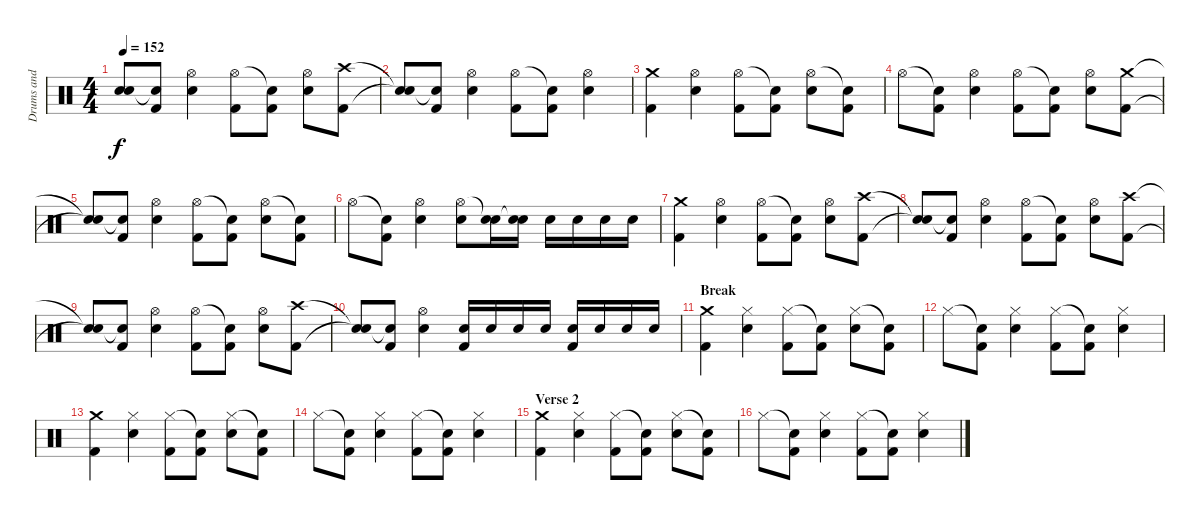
\track ("Drums and Percussion" "Drums and ") {instrument percussion}
\staff {score}
\articulation defaults
\ts (4 4)
\tempo 152
\clef neutral
\ks c
("Snare (hit)"{t} "Snare (hit)"{t}).8{dy f} ("Snare (hit)"{t} "Kick (hit) 2").8 ("Hi-Hat (open)" "Snare (hit) 2").4 ("Hi-Hat (open)" "Kick (hit) 2").8 ("Snare (hit)"{t} "Kick (hit) 2").8 ("Hi-Hat (open)" "Snare (hit) 2").8 ("Crash high (hit)" "Kick (hit) 2").8 |
("Snare (hit)"{t} "Snare (hit)"{t}).8 ("Snare (hit)"{t} "Kick (hit) 2").8 ("Hi-Hat (open)" "Snare (hit) 2").4 ("Hi-Hat (open)" "Kick (hit) 2").8 ("Snare (hit)"{t} "Kick (hit) 2").8 ("Hi-Hat (open)" "Snare (hit) 2").4 |
("Crash medium (hit)" "Kick (hit) 2").4 ("Hi-Hat (open)" "Snare (hit) 2").4 ("Hi-Hat (open)" "Kick (hit) 2").8 ("Snare (hit)"{t} "Kick (hit) 2").8 ("Hi-Hat (open)" "Snare (hit) 2").8 ("Snare (hit)"{t} "Kick (hit) 2").8 |
"Hi-Hat (open)".8 ("Snare (hit)"{t} "Kick (hit) 2").8 ("Hi-Hat (open)" "Snare (hit) 2").4 ("Hi-Hat (open)" "Kick (hit) 2").8 ("Snare (hit)"{t} "Kick (hit) 2").8 ("Hi-Hat (open)" "Snare (hit) 2").8 ("Crash medium (hit)" "Kick (hit) 2").8 |
("Snare (hit)"{t} "Snare (hit)"{t}).8 ("Snare (hit)"{t} "Kick (hit) 2").8 ("Hi-Hat (open)" "Snare (hit) 2").4 ("Hi-Hat (open)" "Kick (hit) 2").8 ("Snare (hit)"{t} "Kick (hit) 2").8 ("Hi-Hat (open)" "Snare (hit) 2").8 ("Snare (hit)"{t} "Kick (hit) 2").8 |
"Hi-Hat (open)".8 ("Snare (hit)"{t} "Kick (hit) 2").8 ("Hi-Hat (open)" "Snare (hit) 2").4 ("Hi-Hat (open)" "Snare (hit) 2").8 ("Snare (hit)"{t} "Snare (hit) 2").16 ("Snare (hit)"{t} "Snare (hit) 2").16 "Snare (hit) 2".16 "Snare (hit) 2".16 "Snare (hit) 2".16 "Snare (hit) 2".16 |
("Crash medium (hit)" "Kick (hit) 2").4 ("Hi-Hat (open)" "Snare (hit) 2").4 ("Hi-Hat (open)" "Kick (hit) 2").8 ("Snare (hit)"{t} "Kick (hit) 2").8 ("Hi-Hat (open)" "Snare (hit) 2").8 ("Crash high (hit)" "Kick (hit) 2").8 |
("Snare (hit)"{t} "Snare (hit)"{t}).8 ("Snare (hit)"{t} "Kick (hit) 2").8 ("Hi-Hat (open)" "Snare (hit) 2").4 ("Hi-Hat (open)" "Kick (hit) 2").8 ("Snare (hit)"{t} "Kick (hit) 2").8 ("Hi-Hat (open)" "Snare (hit) 2").8 ("Crash high (hit)" "Kick (hit) 2").8 |
("Snare (hit)"{t} "Snare (hit)"{t}).8 ("Snare (hit)"{t} "Kick (hit) 2").8 ("Hi-Hat (open)" "Snare (hit) 2").4 ("Hi-Hat (open)" "Kick (hit) 2").8 ("Snare (hit)"{t} "Kick (hit) 2").8 ("Hi-Hat (open)" "Snare (hit) 2").8 ("Crash high (hit)" "Kick (hit) 2").8 |
("Snare (hit)"{t} "Snare (hit)"{t}).8 ("Snare (hit)"{t} "Kick (hit) 2").8 ("Hi-Hat (open)" "Snare (hit) 2").4 ("Snare (hit) 2" "Kick (hit) 2").16 "Snare (hit) 2".16 "Snare (hit) 2".16 "Snare (hit) 2".16 ("Snare (hit) 2" "Kick (hit) 2").16 "Snare (hit) 2".16 "Snare (hit) 2".16 "Snare (hit) 2".16 |
\section ("" "Break")
("Crash medium (hit)" "Kick (hit) 2").4 ("Hi-Hat (closed)" "Snare (hit) 2").4 ("Hi-Hat (closed)" "Kick (hit) 2").8 ("Snare (hit)"{t} "Kick (hit) 2").8 ("Hi-Hat (closed)" "Snare (hit) 2").8 ("Snare (hit)"{t} "Kick (hit) 2").8 |
"Hi-Hat (closed)".8 ("Snare (hit)"{t} "Kick (hit) 2").8 ("Hi-Hat (closed)" "Snare (hit) 2").4 ("Hi-Hat (closed)" "Kick (hit) 2").8 ("Snare (hit)"{t} "Kick (hit) 2").8 ("Hi-Hat (closed)" "Snare (hit) 2").4 |
("Crash medium (hit)" "Kick (hit) 2").4 ("Hi-Hat (closed)" "Snare (hit) 2").4 ("Hi-Hat (closed)" "Kick (hit) 2").8 ("Snare (hit)"{t} "Kick (hit) 2").8 ("Hi-Hat (closed)" "Snare (hit) 2").8 ("Snare (hit)"{t} "Kick (hit) 2").8 |
"Hi-Hat (closed)".8 ("Snare (hit)"{t} "Kick (hit) 2").8 ("Hi-Hat (closed)" "Snare (hit) 2").4 ("Hi-Hat (closed)" "Kick (hit) 2").8 ("Snare (hit)"{t} "Kick (hit) 2").8 ("Hi-Hat (closed)" "Snare (hit) 2").4 |
\section ("" "Verse 2")
("Crash medium (hit)" "Kick (hit) 2").4 ("Hi-Hat (closed)" "Snare (hit) 2").4 ("Hi-Hat (closed)" "Kick (hit) 2").8 ("Snare (hit)"{t} "Kick (hit) 2").8 ("Hi-Hat (closed)" "Snare (hit) 2").8 ("Snare (hit)"{t} "Kick (hit) 2").8 |
"Hi-Hat (closed)".8 ("Snare (hit)"{t} "Kick (hit) 2").8 ("Hi-Hat (closed)" "Snare (hit) 2").4 ("Hi-Hat (closed)" "Kick (hit) 2").8 ("Snare (hit)"{t} "Kick (hit) 2").8 ("Hi-Hat (closed)" "Snare (hit) 2").4
